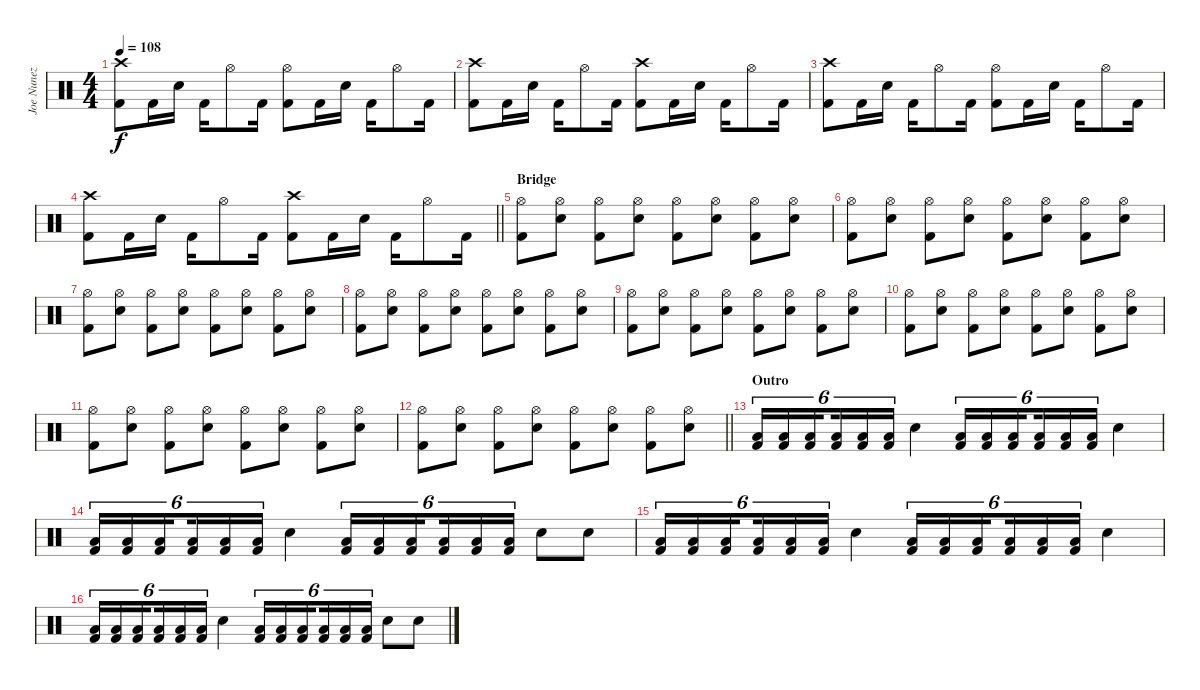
\track ("Joe Nunez (Drums)" "Joe Nunez ") {instrument percussion}
\staff {score}
\articulation defaults
\ts (4 4)
\tempo 108
\clef neutral
\ks c
("Crash high (hit)" "Kick (hit) 2").8{dy f} "Kick (hit) 2".16 "Snare (hit) 2".16 "Kick (hit) 2".16 "Hi-Hat (open)".8 "Kick (hit) 2".16 ("Hi-Hat (open)" "Kick (hit) 2").8 "Kick (hit) 2".16 "Snare (hit) 2".16 "Kick (hit) 2".16 "Hi-Hat (open)".8 "Kick (hit) 2".16 |
("Crash high (hit)" "Kick (hit) 2").8 "Kick (hit) 2".16 "Snare (hit) 2".16 "Kick (hit) 2".16 "Hi-Hat (open)".8 "Kick (hit) 2".16 ("Crash high (hit)" "Kick (hit) 2").8 "Kick (hit) 2".16 "Snare (hit) 2".16 "Kick (hit) 2".16 "Hi-Hat (open)".8 "Kick (hit) 2".16 |
("Crash high (hit)" "Kick (hit) 2").8 "Kick (hit) 2".16 "Snare (hit) 2".16 "Kick (hit) 2".16 "Hi-Hat (open)".8 "Kick (hit) 2".16 ("Hi-Hat (open)" "Kick (hit) 2").8 "Kick (hit) 2".16 "Snare (hit) 2".16 "Kick (hit) 2".16 "Hi-Hat (open)".8 "Kick (hit) 2".16 |
\barLineRight lightlight
("Crash high (hit)" "Kick (hit) 2").8 "Kick (hit) 2".16 "Snare (hit) 2".16 "Kick (hit) 2".16 "Hi-Hat (open)".8 "Kick (hit) 2".16 ("Crash high (hit)" "Kick (hit) 2").8 "Kick (hit) 2".16 "Snare (hit) 2".16 "Kick (hit) 2".16 "Hi-Hat (open)".8 "Kick (hit) 2".16 |
\section ("" "Bridge")
("Hi-Hat (open)" "Kick (hit) 2").8 ("Hi-Hat (open)" "Snare (hit) 2").8 ("Hi-Hat (open)" "Kick (hit) 2").8 ("Hi-Hat (open)" "Snare (hit) 2").8 ("Hi-Hat (open)" "Kick (hit) 2").8 ("Hi-Hat (open)" "Snare (hit) 2").8 ("Hi-Hat (open)" "Kick (hit) 2").8 ("Hi-Hat (open)" "Snare (hit) 2").8 |
("Hi-Hat (open)" "Kick (hit) 2").8 ("Hi-Hat (open)" "Snare (hit) 2").8 ("Hi-Hat (open)" "Kick (hit) 2").8 ("Hi-Hat (open)" "Snare (hit) 2").8 ("Hi-Hat (open)" "Kick (hit) 2").8 ("Hi-Hat (open)" "Snare (hit) 2").8 ("Hi-Hat (open)" "Kick (hit) 2").8 ("Hi-Hat (open)" "Snare (hit) 2").8 |
("Hi-Hat (open)" "Kick (hit) 2").8 ("Hi-Hat (open)" "Snare (hit) 2").8 ("Hi-Hat (open)" "Kick (hit) 2").8 ("Hi-Hat (open)" "Snare (hit) 2").8 ("Hi-Hat (open)" "Kick (hit) 2").8 ("Hi-Hat (open)" "Snare (hit) 2").8 ("Hi-Hat (open)" "Kick (hit) 2").8 ("Hi-Hat (open)" "Snare (hit) 2").8 |
("Hi-Hat (open)" "Kick (hit) 2").8 ("Hi-Hat (open)" "Snare (hit) 2").8 ("Hi-Hat (open)" "Kick (hit) 2").8 ("Hi-Hat (open)" "Snare (hit) 2").8 ("Hi-Hat (open)" "Kick (hit) 2").8 ("Hi-Hat (open)" "Snare (hit) 2").8 ("Hi-Hat (open)" "Kick (hit) 2").8 ("Hi-Hat (open)" "Snare (hit) 2").8 |
("Hi-Hat (open)" "Kick (hit) 2").8 ("Hi-Hat (open)" "Snare (hit) 2").8 ("Hi-Hat (open)" "Kick (hit) 2").8 ("Hi-Hat (open)" "Snare (hit) 2").8 ("Hi-Hat (open)" "Kick (hit) 2").8 ("Hi-Hat (open)" "Snare (hit) 2").8 ("Hi-Hat (open)" "Kick (hit) 2").8 ("Hi-Hat (open)" "Snare (hit) 2").8 |
("Hi-Hat (open)" "Kick (hit) 2").8 ("Hi-Hat (open)" "Snare (hit) 2").8 ("Hi-Hat (open)" "Kick (hit) 2").8 ("Hi-Hat (open)" "Snare (hit) 2").8 ("Hi-Hat (open)" "Kick (hit) 2").8 ("Hi-Hat (open)" "Snare (hit) 2").8 ("Hi-Hat (open)" "Kick (hit) 2").8 ("Hi-Hat (open)" "Snare (hit) 2").8 |
("Hi-Hat (open)" "Kick (hit) 2").8 ("Hi-Hat (open)" "Snare (hit) 2").8 ("Hi-Hat (open)" "Kick (hit) 2").8 ("Hi-Hat (open)" "Snare (hit) 2").8 ("Hi-Hat (open)" "Kick (hit) 2").8 ("Hi-Hat (open)" "Snare (hit) 2").8 ("Hi-Hat (open)" "Kick (hit) 2").8 ("Hi-Hat (open)" "Snare (hit) 2").8 |
\barLineRight lightlight
("Hi-Hat (open)" "Kick (hit) 2").8 ("Hi-Hat (open)" "Snare (hit) 2").8 ("Hi-Hat (open)" "Kick (hit) 2").8 ("Hi-Hat (open)" "Snare (hit) 2").8 ("Hi-Hat (open)" "Kick (hit) 2").8 ("Hi-Hat (open)" "Snare (hit) 2").8 ("Hi-Hat (open)" "Kick (hit) 2").8 ("Hi-Hat (open)" "Snare (hit) 2").8 |
\section ("" "Outro")
("Low Floor Tom (hit)" "Kick (hit) 2").16{tu (6 4)} ("Low Floor Tom (hit)" "Kick (hit) 2").16{tu (6 4)} ("Low Floor Tom (hit)" "Kick (hit) 2").16{tu (6 4) beam splitsecondary} ("Low Floor Tom (hit)" "Kick (hit) 2").16{tu (6 4)} ("Low Floor Tom (hit)" "Kick (hit) 2").16{tu (6 4)} ("Low Floor Tom (hit)" "Kick (hit) 2").16{tu (6 4)} "Snare (hit) 2".4 ("Low Floor Tom (hit)" "Kick (hit) 2").16{tu (6 4)} ("Low Floor Tom (hit)" "Kick (hit) 2").16{tu (6 4)} ("Low Floor Tom (hit)" "Kick (hit) 2").16{tu (6 4) beam splitsecondary} ("Low Floor Tom (hit)" "Kick (hit) 2").16{tu (6 4)} ("Low Floor Tom (hit)" "Kick (hit) 2").16{tu (6 4)} ("Low Floor Tom (hit)" "Kick (hit) 2").16{tu (6 4)} "Snare (hit) 2".4 |
("Low Floor Tom (hit)" "Kick (hit) 2").16{tu (6 4)} ("Low Floor Tom (hit)" "Kick (hit) 2").16{tu (6 4)} ("Low Floor Tom (hit)" "Kick (hit) 2").16{tu (6 4) beam splitsecondary} ("Low Floor Tom (hit)" "Kick (hit) 2").16{tu (6 4)} ("Low Floor Tom (hit)" "Kick (hit) 2").16{tu (6 4)} ("Low Floor Tom (hit)" "Kick (hit) 2").16{tu (6 4)} "Snare (hit) 2".4 ("Low Floor Tom (hit)" "Kick (hit) 2").16{tu (6 4)} ("Low Floor Tom (hit)" "Kick (hit) 2").16{tu (6 4)} ("Low Floor Tom (hit)" "Kick (hit) 2").16{tu (6 4) beam splitsecondary} ("Low Floor Tom (hit)" "Kick (hit) 2").16{tu (6 4)} ("Low Floor Tom (hit)" "Kick (hit) 2").16{tu (6 4)} ("Low Floor Tom (hit)" "Kick (hit) 2").16{tu (6 4)} "Snare (hit) 2".8 "Snare (hit) 2".8 |
("Low Floor Tom (hit)" "Kick (hit) 2").16{tu (6 4)} ("Low Floor Tom (hit)" "Kick (hit) 2").16{tu (6 4)} ("Low Floor Tom (hit)" "Kick (hit) 2").16{tu (6 4) beam splitsecondary} ("Low Floor Tom (hit)" "Kick (hit) 2").16{tu (6 4)} ("Low Floor Tom (hit)" "Kick (hit) 2").16{tu (6 4)} ("Low Floor Tom (hit)" "Kick (hit) 2").16{tu (6 4)} "Snare (hit) 2".4 ("Low Floor Tom (hit)" "Kick (hit) 2").16{tu (6 4)} ("Low Floor Tom (hit)" "Kick (hit) 2").16{tu (6 4)} ("Low Floor Tom (hit)" "Kick (hit) 2").16{tu (6 4) beam splitsecondary} ("Low Floor Tom (hit)" "Kick (hit) 2").16{tu (6 4)} ("Low Floor Tom (hit)" "Kick (hit) 2").16{tu (6 4)} ("Low Floor Tom (hit)" "Kick (hit) 2").16{tu (6 4)} "Snare (hit) 2".4 |
("Low Floor Tom (hit)" "Kick (hit) 2").16{tu (6 4)} ("Low Floor Tom (hit)" "Kick (hit) 2").16{tu (6 4)} ("Low Floor Tom (hit)" "Kick (hit) 2").16{tu (6 4) beam splitsecondary} ("Low Floor Tom (hit)" "Kick (hit) 2").16{tu (6 4)} ("Low Floor Tom (hit)" "Kick (hit) 2").16{tu (6 4)} ("Low Floor Tom (hit)" "Kick (hit) 2").16{tu (6 4)} "Snare (hit) 2".4 ("Low Floor Tom (hit)" "Kick (hit) 2").16{tu (6 4)} ("Low Floor Tom (hit)" "Kick (hit) 2").16{tu (6 4)} ("Low Floor Tom (hit)" "Kick (hit) 2").16{tu (6 4) beam splitsecondary} ("Low Floor Tom (hit)" "Kick (hit) 2").16{tu (6 4)} ("Low Floor Tom (hit)" "Kick (hit) 2").16{tu (6 4)} ("Low Floor Tom (hit)" "Kick (hit) 2").16{tu (6 4)} "Snare (hit) 2".8 "Snare (hit) 2".8
